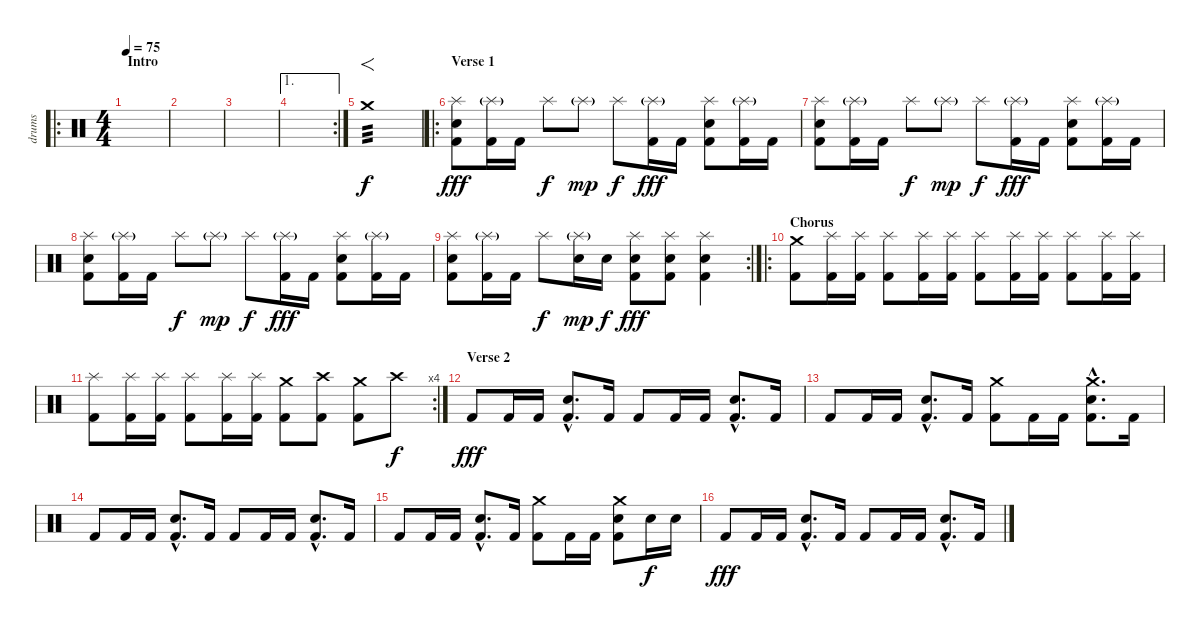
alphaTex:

\track ("drums" "drums") {instrument percussion}
\staff {score}
\articulation defaults
\ro
\ts (4 4)
\section ("" "Intro")
\tempo 75
\clef neutral
\ks c
|
|
|
\ae 1
\rc 2
|
"Crash medium (hit)".1{f tp 3} |
\ro
\section ("" "Verse 1")
("Splash (hit)" "Electric Snare (hit)" "Kick (hit) 2").8{dy fff} ("Splash (hit)"{g} "Kick (hit) 2").16 "Kick (hit) 2".16 "Splash (hit)".8{dy f} "Splash (hit)"{g}.8{dy mp} "Splash (hit)".8{dy f} ("Splash (hit)"{g} "Kick (hit) 2").16{dy fff} "Kick (hit) 2".16 ("Splash (hit)" "Electric Snare (hit)" "Kick (hit) 2").8 ("Splash (hit)"{g} "Kick (hit) 2").16 "Kick (hit) 2".16 |
("Splash (hit)" "Electric Snare (hit)" "Kick (hit) 2").8 ("Splash (hit)"{g} "Kick (hit) 2").16 "Kick (hit) 2".16 "Splash (hit)".8{dy f} "Splash (hit)"{g}.8{dy mp} "Splash (hit)".8{dy f} ("Splash (hit)"{g} "Kick (hit) 2").16{dy fff} "Kick (hit) 2".16 ("Splash (hit)" "Electric Snare (hit)" "Kick (hit) 2").8 ("Splash (hit)"{g} "Kick (hit) 2").16 "Kick (hit) 2".16 |
("Splash (hit)" "Electric Snare (hit)" "Kick (hit) 2").8 ("Splash (hit)"{g} "Kick (hit) 2").16 "Kick (hit) 2".16 "Splash (hit)".8{dy f} "Splash (hit)"{g}.8{dy mp} "Splash (hit)".8{dy f} ("Splash (hit)"{g} "Kick (hit) 2").16{dy fff} "Kick (hit) 2".16 ("Splash (hit)" "Electric Snare (hit)" "Kick (hit) 2").8 ("Splash (hit)"{g} "Kick (hit) 2").16 "Kick (hit) 2".16 |
\rc 2
("Splash (hit)" "Electric Snare (hit)" "Kick (hit) 2").8 ("Splash (hit)"{g} "Kick (hit) 2").16 "Kick (hit) 2".16 "Splash (hit)".8{dy f} ("Splash (hit)"{g} "Electric Snare (hit)").16{dy mp} "Electric Snare (hit)".16{dy f} ("Splash (hit)" "Electric Snare (hit)" "Kick (hit) 2").8{dy fff} ("Splash (hit)" "Electric Snare (hit)" "Kick (hit) 2").8 ("Splash (hit)" "Electric Snare (hit)" "Kick (hit) 2").4 |
\ro
\section ("" "Chorus")
("Crash medium (hit)" "Kick (hit) 2").8 ("Splash (hit)" "Kick (hit) 2").16 ("Splash (hit)" "Kick (hit) 2").16 ("Splash (hit)" "Kick (hit) 2").8 ("Splash (hit)" "Kick (hit) 2").16 ("Splash (hit)" "Kick (hit) 2").16 ("Splash (hit)" "Kick (hit) 2").8 ("Splash (hit)" "Kick (hit) 2").16 ("Splash (hit)" "Kick (hit) 2").16 ("Splash (hit)" "Kick (hit) 2").8 ("Splash (hit)" "Kick (hit) 2").16 ("Splash (hit)" "Kick (hit) 2").16 |
\rc 4
("Splash (hit)" "Kick (hit) 2").8 ("Splash (hit)" "Kick (hit) 2").16 ("Splash (hit)" "Kick (hit) 2").16 ("Splash (hit)" "Kick (hit) 2").8 ("Splash (hit)" "Kick (hit) 2").16 ("Splash (hit)" "Kick (hit) 2").16 ("Crash medium (hit)" "Kick (hit) 2").8 ("Crash high (hit)" "Kick (hit) 2").8 ("Crash medium (hit)" "Kick (hit) 2").8 "Crash high (hit)".8{dy f} |
\section ("" "Verse 2")
"Kick (hit) 2".8{dy fff} "Kick (hit) 2".16 "Kick (hit) 2".16 ("Electric Snare (hit)"{hac} "Kick (hit) 2"{hac}).8{d} "Kick (hit) 2".16 "Kick (hit) 2".8 "Kick (hit) 2".16 "Kick (hit) 2".16 ("Electric Snare (hit)"{hac} "Kick (hit) 2"{hac}).8{d} "Kick (hit) 2".16 |
"Kick (hit) 2".8 "Kick (hit) 2".16 "Kick (hit) 2".16 ("Electric Snare (hit)"{hac} "Kick (hit) 2"{hac}).8{d} "Kick (hit) 2".16 ("Crash medium (hit)" "Kick (hit) 2").8 "Kick (hit) 2".16 "Kick (hit) 2".16 ("Crash medium (hit)"{hac} "Electric Snare (hit)"{hac} "Kick (hit) 2"{hac}).8{d} "Kick (hit) 2".16 |
"Kick (hit) 2".8 "Kick (hit) 2".16 "Kick (hit) 2".16 ("Electric Snare (hit)"{hac} "Kick (hit) 2"{hac}).8{d} "Kick (hit) 2".16 "Kick (hit) 2".8 "Kick (hit) 2".16 "Kick (hit) 2".16 ("Electric Snare (hit)"{hac} "Kick (hit) 2"{hac}).8{d} "Kick (hit) 2".16 |
"Kick (hit) 2".8 "Kick (hit) 2".16 "Kick (hit) 2".16 ("Electric Snare (hit)"{hac} "Kick (hit) 2"{hac}).8{d} "Kick (hit) 2".16 ("Crash medium (hit)" "Kick (hit) 2").8 "Kick (hit) 2".16 "Kick (hit) 2".16 ("Crash medium (hit)" "Electric Snare (hit)" "Kick (hit) 2").8 "Electric Snare (hit)".16{dy f} "Electric Snare (hit)".16 |
"Kick (hit) 2".8{dy fff} "Kick (hit) 2".16 "Kick (hit) 2".16 ("Electric Snare (hit)"{hac} "Kick (hit) 2"{hac}).8{d} "Kick (hit) 2".16 "Kick (hit) 2".8 "Kick (hit) 2".16 "Kick (hit) 2".16 ("Electric Snare (hit)"{hac} "Kick (hit) 2"{hac}).8{d} "Kick (hit) 2".16
